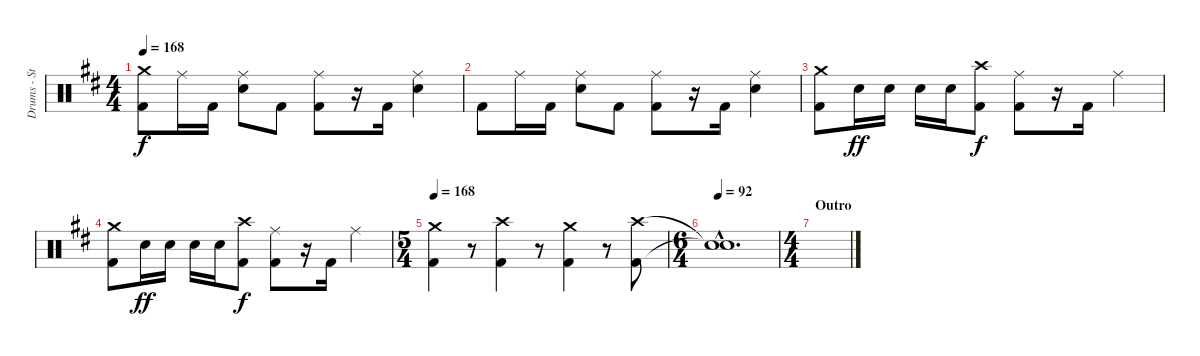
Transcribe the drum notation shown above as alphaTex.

\track ("Drums - Steve Wacholz" "Drums - St") {instrument percussion}
\staff {score}
\articulation defaults
\ts (4 4)
\tempo 168
\clef neutral
\ks d
("Crash medium (hit)" "Kick (hit) 2").8{dy f} "Ride (middle)".16 "Kick (hit) 2".16 ("Ride (middle)" "Electric Snare (hit)").8 "Kick (hit) 2".8 ("Ride (middle)" "Kick (hit) 2").8 r.16 "Kick (hit) 2".16 ("Ride (middle)" "Electric Snare (hit)").4 |
"Kick (hit) 2".8 "Ride (middle)".16 "Kick (hit) 2".16 ("Ride (middle)" "Electric Snare (hit)").8 "Kick (hit) 2".8 ("Ride (middle)" "Kick (hit) 2").8 r.16 "Kick (hit) 2".16 ("Ride (middle)" "Electric Snare (hit)").4 |
("Crash medium (hit)" "Kick (hit) 2").8 "Electric Snare (hit)".16{dy ff} "Electric Snare (hit)".16 "Electric Snare (hit)".16 "Electric Snare (hit)".16 ("Crash high (hit)" "Kick (hit) 2").8{dy f} ("Ride (middle)" "Kick (hit) 2").8 r.16 "Kick (hit) 2".16 "Ride (middle)".4 |
("Crash medium (hit)" "Kick (hit) 2").8 "Electric Snare (hit)".16{dy ff} "Electric Snare (hit)".16 "Electric Snare (hit)".16 "Electric Snare (hit)".16 ("Crash high (hit)" "Kick (hit) 2").8{dy f} ("Ride (middle)" "Kick (hit) 2").8 r.16 "Kick (hit) 2".16 "Ride (middle)".4 |
\ts (5 4)
\tempo 168
("Crash medium (hit)" "Kick (hit) 2").4 r.8 ("Crash high (hit)" "Kick (hit) 2").4 r.8 ("Crash medium (hit)" "Kick (hit) 2").4 r.8 ("Crash high (hit)" "Kick (hit) 2").8 |
\ts (6 4)
\tempo 92
("Snare (hit)"{hac t} "Snare (hit)"{hac t}).1{d} |
\ts (4 4)
\section ("" "Outro")
